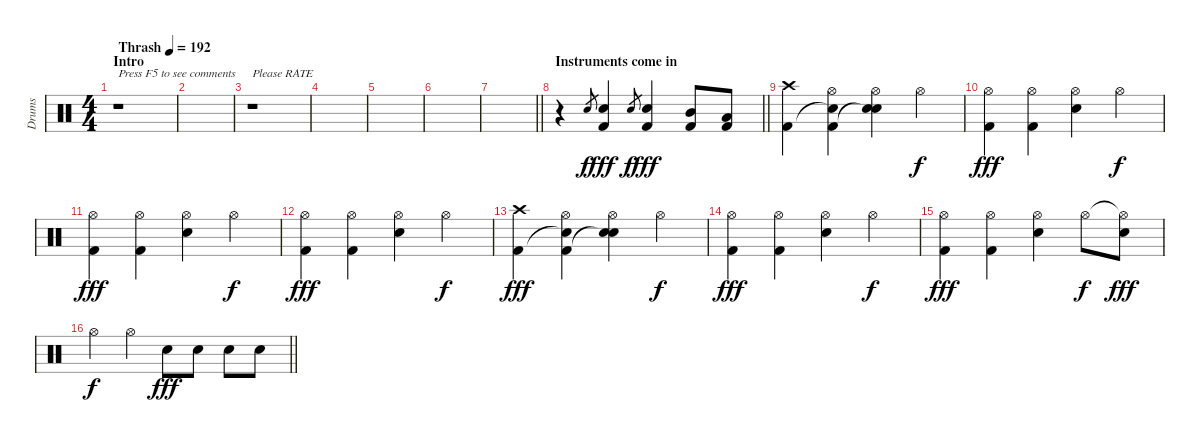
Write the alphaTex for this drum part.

\track ("Drums" "Drums") {instrument percussion}
\staff {score}
\articulation defaults
\ts (4 4)
\section ("" "Intro")
\tempo (192 "Thrash")
\clef neutral
\ks c
r.1{txt "Press F5 to see comments" dy f} |
|
r.1{txt "Please RATE"} |
|
|
|
\barLineRight lightlight
|
\section ("" "Instruments come in")
\barLineRight lightlight
r.4 "Snare (hit) 2".8{gr} ("Snare (hit) 2" "Kick (hit) 2").4{dy fff} "Snare (hit) 2".8{gr dy f} ("Snare (hit) 2" "Kick (hit) 2").4{dy fff} ("Mid Tom (hit)" "Kick (hit) 2").8 ("Low Tom (hit)" "Kick (hit) 2").8 |
("Crash high (hit)" "Kick (hit) 2").4 ("Hi-Hat (open)" "Snare (hit)"{t} "Kick (hit) 2").4 ("Hi-Hat (open)" "Snare (hit) 2" "Snare (hit)"{t}).4 "Hi-Hat (open)".4{dy f} |
("Hi-Hat (open)" "Kick (hit) 2").4{dy fff} ("Hi-Hat (open)" "Kick (hit) 2").4 ("Hi-Hat (open)" "Snare (hit) 2").4 "Hi-Hat (open)".4{dy f} |
("Hi-Hat (open)" "Kick (hit) 2").4{dy fff} ("Hi-Hat (open)" "Kick (hit) 2").4 ("Hi-Hat (open)" "Snare (hit) 2").4 "Hi-Hat (open)".4{dy f} |
("Hi-Hat (open)" "Kick (hit) 2").4{dy fff} ("Hi-Hat (open)" "Kick (hit) 2").4 ("Hi-Hat (open)" "Snare (hit) 2").4 "Hi-Hat (open)".4{dy f} |
("Crash high (hit)" "Kick (hit) 2").4{dy fff} ("Hi-Hat (open)" "Snare (hit)"{t} "Kick (hit) 2").4 ("Hi-Hat (open)" "Snare (hit) 2" "Snare (hit)"{t}).4 "Hi-Hat (open)".4{dy f} |
("Hi-Hat (open)" "Kick (hit) 2").4{dy fff} ("Hi-Hat (open)" "Kick (hit) 2").4 ("Hi-Hat (open)" "Snare (hit) 2").4 "Hi-Hat (open)".4{dy f} |
("Hi-Hat (open)" "Kick (hit) 2").4{dy fff} ("Hi-Hat (open)" "Kick (hit) 2").4 ("Hi-Hat (open)" "Snare (hit) 2").4 "Hi-Hat (open)".8{dy f} ("Hi-Hat (open)"{t} "Snare (hit) 2").8{dy fff} |
\barLineRight lightlight "Hi-Hat (open)".4{dy f} "Hi-Hat (open)".4 "Snare (hit) 2".8{dy fff} "Snare (hit) 2".8 "Snare (hit) 2".8 "Snare (hit) 2".8
